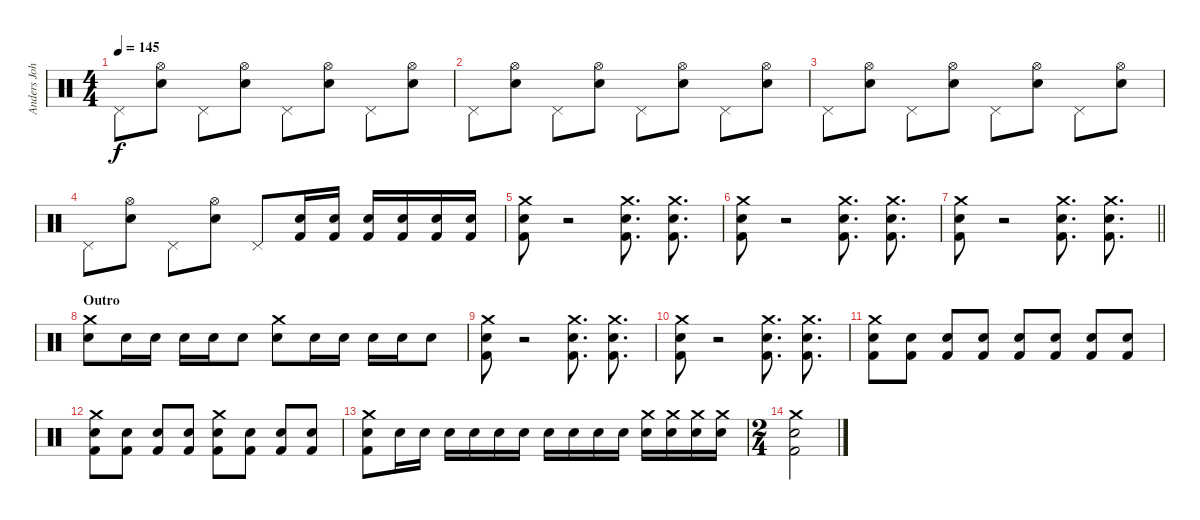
\track ("Anders Johansson (Drums)" "Anders Joh") {instrument percussion}
\staff {score}
\articulation defaults
\ts (4 4)
\tempo 145
\clef neutral
\ks c "Pedal Hi-Hat (hit)".8{dy f}
("Hi-Hat (open)" "Electric Snare (hit)").8 "Pedal Hi-Hat (hit)".8 ("Hi-Hat (open)" "Electric Snare (hit)").8 "Pedal Hi-Hat (hit)".8 ("Hi-Hat (open)" "Electric Snare (hit)").8 "Pedal Hi-Hat (hit)".8 ("Hi-Hat (open)" "Electric Snare (hit)").8 |
"Pedal Hi-Hat (hit)".8 ("Hi-Hat (open)" "Electric Snare (hit)").8 "Pedal Hi-Hat (hit)".8 ("Hi-Hat (open)" "Electric Snare (hit)").8 "Pedal Hi-Hat (hit)".8 ("Hi-Hat (open)" "Electric Snare (hit)").8 "Pedal Hi-Hat (hit)".8 ("Hi-Hat (open)" "Electric Snare (hit)").8 |
"Pedal Hi-Hat (hit)".8 ("Hi-Hat (open)" "Electric Snare (hit)").8 "Pedal Hi-Hat (hit)".8 ("Hi-Hat (open)" "Electric Snare (hit)").8 "Pedal Hi-Hat (hit)".8 ("Hi-Hat (open)" "Electric Snare (hit)").8 "Pedal Hi-Hat (hit)".8 ("Hi-Hat (open)" "Electric Snare (hit)").8 |
"Pedal Hi-Hat (hit)".8 ("Hi-Hat (open)" "Electric Snare (hit)").8 "Pedal Hi-Hat (hit)".8 ("Hi-Hat (open)" "Electric Snare (hit)").8 "Pedal Hi-Hat (hit)".8 ("Kick (hit) 2" "Electric Snare (hit)").16 ("Kick (hit) 2" "Electric Snare (hit)").16 ("Kick (hit) 2" "Electric Snare (hit)").16 ("Kick (hit) 2" "Electric Snare (hit)").16 ("Kick (hit) 2" "Electric Snare (hit)").16 ("Kick (hit) 2" "Electric Snare (hit)").16 |
("Crash medium (hit)" "Electric Snare (hit)" "Kick (hit) 2").8 r.2 ("Crash medium (hit)" "Electric Snare (hit)" "Kick (hit) 2").8{d} ("Crash medium (hit)" "Electric Snare (hit)" "Kick (hit) 2").8{d} |
("Crash medium (hit)" "Electric Snare (hit)" "Kick (hit) 2").8 r.2 ("Crash medium (hit)" "Electric Snare (hit)" "Kick (hit) 2").8{d} ("Crash medium (hit)" "Electric Snare (hit)" "Kick (hit) 2").8{d} |
\barLineRight lightlight
("Crash medium (hit)" "Electric Snare (hit)" "Kick (hit) 2").8 r.2 ("Crash medium (hit)" "Electric Snare (hit)" "Kick (hit) 2").8{d} ("Crash medium (hit)" "Electric Snare (hit)" "Kick (hit) 2").8{d} |
\section ("" "Outro")
("Crash medium (hit)" "Electric Snare (hit)").8 "Electric Snare (hit)".16 "Electric Snare (hit)".16 "Electric Snare (hit)".16 "Electric Snare (hit)".16 "Electric Snare (hit)".8 ("Crash medium (hit)" "Electric Snare (hit)").8 "Electric Snare (hit)".16 "Electric Snare (hit)".16 "Electric Snare (hit)".16 "Electric Snare (hit)".16 "Electric Snare (hit)".8 |
("Crash medium (hit)" "Electric Snare (hit)" "Kick (hit) 2").8 r.2 ("Crash medium (hit)" "Electric Snare (hit)" "Kick (hit) 2").8{d} ("Crash medium (hit)" "Electric Snare (hit)" "Kick (hit) 2").8{d} |
("Crash medium (hit)" "Electric Snare (hit)" "Kick (hit) 2").8 r.2 ("Crash medium (hit)" "Electric Snare (hit)" "Kick (hit) 2").8{d} ("Crash medium (hit)" "Electric Snare (hit)" "Kick (hit) 2").8{d} |
("Crash medium (hit)" "Electric Snare (hit)" "Kick (hit) 2").8 ("Electric Snare (hit)" "Kick (hit) 2").8 ("Electric Snare (hit)" "Kick (hit) 2").8 ("Electric Snare (hit)" "Kick (hit) 2").8 ("Electric Snare (hit)" "Kick (hit) 2").8 ("Electric Snare (hit)" "Kick (hit) 2").8 ("Electric Snare (hit)" "Kick (hit) 2").8 ("Electric Snare (hit)" "Kick (hit) 2").8 |
("Crash medium (hit)" "Electric Snare (hit)" "Kick (hit) 2").8 ("Electric Snare (hit)" "Kick (hit) 2").8 ("Electric Snare (hit)" "Kick (hit) 2").8 ("Electric Snare (hit)" "Kick (hit) 2").8 ("Crash medium (hit)" "Electric Snare (hit)" "Kick (hit) 2").8 ("Electric Snare (hit)" "Kick (hit) 2").8 ("Electric Snare (hit)" "Kick (hit) 2").8 ("Electric Snare (hit)" "Kick (hit) 2").8 |
("Crash medium (hit)" "Electric Snare (hit)" "Kick (hit) 2").8 "Electric Snare (hit)".16 "Electric Snare (hit)".16 "Electric Snare (hit)".16 "Electric Snare (hit)".16 "Electric Snare (hit)".16 "Electric Snare (hit)".16 "Electric Snare (hit)".16 "Electric Snare (hit)".16 "Electric Snare (hit)".16 "Electric Snare (hit)".16 ("Crash medium (hit)" "Electric Snare (hit)").16 ("Crash medium (hit)" "Electric Snare (hit)").16 ("Crash medium (hit)" "Electric Snare (hit)").16 ("Crash medium (hit)" "Electric Snare (hit)").16 |
\ts (2 4)
("Crash medium (hit)" "Electric Snare (hit)" "Kick (hit) 2").2
